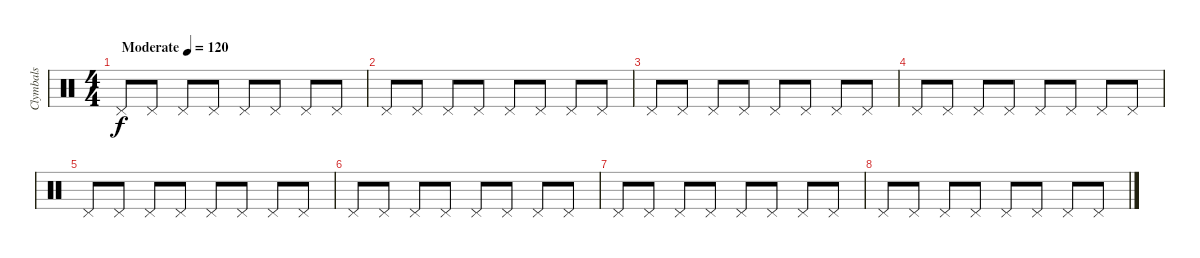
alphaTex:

\track ("Clymbals" "Clymbals") {instrument percussion}
\staff {score}
\articulation defaults
\ts (4 4)
\tempo (120 "Moderate")
\clef neutral
\ks c "Pedal Hi-Hat (hit)".8{dy f} "Pedal Hi-Hat (hit)".8 "Pedal Hi-Hat (hit)".8 "Pedal Hi-Hat (hit)".8 "Pedal Hi-Hat (hit)".8 "Pedal Hi-Hat (hit)".8 "Pedal Hi-Hat (hit)".8 "Pedal Hi-Hat (hit)".8
|
"Pedal Hi-Hat (hit)".8 "Pedal Hi-Hat (hit)".8 "Pedal Hi-Hat (hit)".8 "Pedal Hi-Hat (hit)".8 "Pedal Hi-Hat (hit)".8 "Pedal Hi-Hat (hit)".8 "Pedal Hi-Hat (hit)".8 "Pedal Hi-Hat (hit)".8 |
"Pedal Hi-Hat (hit)".8 "Pedal Hi-Hat (hit)".8 "Pedal Hi-Hat (hit)".8 "Pedal Hi-Hat (hit)".8 "Pedal Hi-Hat (hit)".8 "Pedal Hi-Hat (hit)".8 "Pedal Hi-Hat (hit)".8 "Pedal Hi-Hat (hit)".8 |
"Pedal Hi-Hat (hit)".8 "Pedal Hi-Hat (hit)".8 "Pedal Hi-Hat (hit)".8 "Pedal Hi-Hat (hit)".8 "Pedal Hi-Hat (hit)".8 "Pedal Hi-Hat (hit)".8 "Pedal Hi-Hat (hit)".8 "Pedal Hi-Hat (hit)".8 |
"Pedal Hi-Hat (hit)".8 "Pedal Hi-Hat (hit)".8 "Pedal Hi-Hat (hit)".8 "Pedal Hi-Hat (hit)".8 "Pedal Hi-Hat (hit)".8 "Pedal Hi-Hat (hit)".8 "Pedal Hi-Hat (hit)".8 "Pedal Hi-Hat (hit)".8 |
"Pedal Hi-Hat (hit)".8 "Pedal Hi-Hat (hit)".8 "Pedal Hi-Hat (hit)".8 "Pedal Hi-Hat (hit)".8 "Pedal Hi-Hat (hit)".8 "Pedal Hi-Hat (hit)".8 "Pedal Hi-Hat (hit)".8 "Pedal Hi-Hat (hit)".8 |
"Pedal Hi-Hat (hit)".8 "Pedal Hi-Hat (hit)".8 "Pedal Hi-Hat (hit)".8 "Pedal Hi-Hat (hit)".8 "Pedal Hi-Hat (hit)".8 "Pedal Hi-Hat (hit)".8 "Pedal Hi-Hat (hit)".8 "Pedal Hi-Hat (hit)".8 |
"Pedal Hi-Hat (hit)".8 "Pedal Hi-Hat (hit)".8 "Pedal Hi-Hat (hit)".8 "Pedal Hi-Hat (hit)".8 "Pedal Hi-Hat (hit)".8 "Pedal Hi-Hat (hit)".8 "Pedal Hi-Hat (hit)".8 "Pedal Hi-Hat (hit)".8
